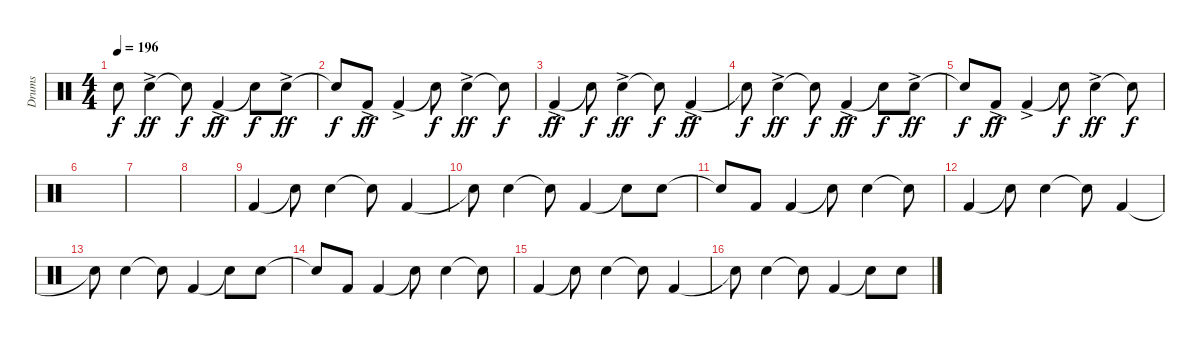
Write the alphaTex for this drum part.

\track ("Drums" "Drums") {instrument percussion}
\staff {score}
\articulation defaults
\ts (4 4)
\tempo 196
\clef neutral
\ks c "Snare (hit)"{t}.8{dy f} "Electric Snare (hit)"{ac}.4{dy ff} "Snare (hit)"{t}.8{dy f} "Kick (hit) 2"{ac}.4{dy ff} "Snare (hit)"{t}.8{dy f} "Electric Snare (hit)"{ac}.8{dy ff}
|
"Snare (hit)"{t}.8{dy f} "Kick (hit) 2"{ac}.8{dy ff} "Kick (hit) 2"{ac}.4 "Snare (hit)"{t}.8{dy f} "Electric Snare (hit)"{ac}.4{dy ff} "Snare (hit)"{t}.8{dy f} |
"Kick (hit) 2"{ac}.4{dy ff} "Snare (hit)"{t}.8{dy f} "Electric Snare (hit)"{ac}.4{dy ff} "Snare (hit)"{t}.8{dy f} "Kick (hit) 2"{ac}.4{dy ff} |
"Snare (hit)"{t}.8{dy f} "Electric Snare (hit)"{ac}.4{dy ff} "Snare (hit)"{t}.8{dy f} "Kick (hit) 2"{ac}.4{dy ff} "Snare (hit)"{t}.8{dy f} "Electric Snare (hit)"{ac}.8{dy ff} |
"Snare (hit)"{t}.8{dy f} "Kick (hit) 2"{ac}.8{dy ff} "Kick (hit) 2"{ac}.4 "Snare (hit)"{t}.8{dy f} "Electric Snare (hit)"{ac}.4{dy ff} "Snare (hit)"{t}.8{dy f} |
|
|
|
"Kick (hit) 2".4 "Snare (hit)"{t}.8 "Electric Snare (hit)".4 "Snare (hit)"{t}.8 "Kick (hit) 2".4 |
"Snare (hit)"{t}.8 "Electric Snare (hit)".4 "Snare (hit)"{t}.8 "Kick (hit) 2".4 "Snare (hit)"{t}.8 "Electric Snare (hit)".8 |
"Snare (hit)"{t}.8 "Kick (hit) 2".8 "Kick (hit) 2".4 "Snare (hit)"{t}.8 "Electric Snare (hit)".4 "Snare (hit)"{t}.8 |
"Kick (hit) 2".4 "Snare (hit)"{t}.8 "Electric Snare (hit)".4 "Snare (hit)"{t}.8 "Kick (hit) 2".4 |
"Snare (hit)"{t}.8 "Electric Snare (hit)".4 "Snare (hit)"{t}.8 "Kick (hit) 2".4 "Snare (hit)"{t}.8 "Electric Snare (hit)".8 |
"Snare (hit)"{t}.8 "Kick (hit) 2".8 "Kick (hit) 2".4 "Snare (hit)"{t}.8 "Electric Snare (hit)".4 "Snare (hit)"{t}.8 |
"Kick (hit) 2".4 "Snare (hit)"{t}.8 "Electric Snare (hit)".4 "Snare (hit)"{t}.8 "Kick (hit) 2".4 |
"Snare (hit)"{t}.8 "Electric Snare (hit)".4 "Snare (hit)"{t}.8 "Kick (hit) 2".4 "Snare (hit)"{t}.8 "Electric Snare (hit)".8
